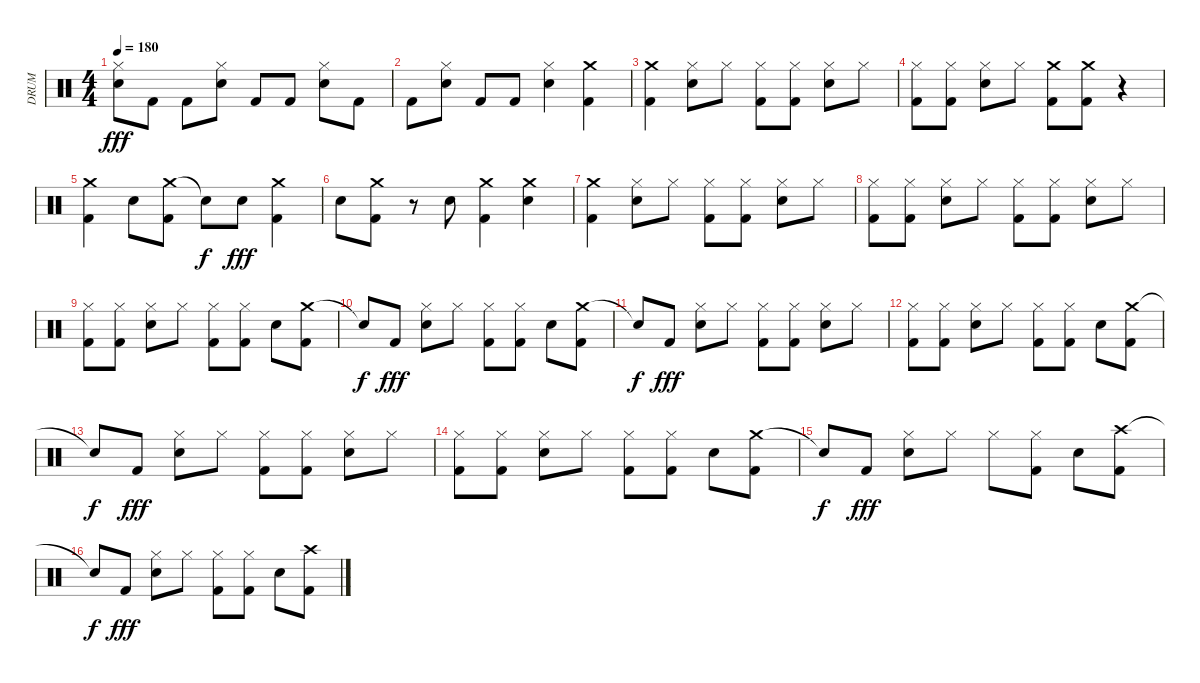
\track ("DRUM" "DRUM") {instrument percussion}
\staff {score}
\articulation defaults
\ts (4 4)
\tempo 180
\clef neutral
\ks c
("Hi-Hat (closed)" "Snare (hit) 2").8{dy fff} "Kick (hit) 2".8 "Kick (hit) 2".8 ("Hi-Hat (closed)" "Snare (hit) 2").8 "Kick (hit) 2".8 "Kick (hit) 2".8 ("Hi-Hat (closed)" "Snare (hit) 2").8 "Kick (hit) 2".8 |
"Kick (hit) 2".8 ("Hi-Hat (closed)" "Snare (hit) 2").8 "Kick (hit) 2".8 "Kick (hit) 2".8 ("Hi-Hat (closed)" "Snare (hit) 2").4 ("Crash medium (hit)" "Kick (hit) 2").4 |
("Crash medium (hit)" "Kick (hit) 2").4 ("Hi-Hat (closed)" "Snare (hit) 2").8 "Hi-Hat (closed)".8 ("Hi-Hat (closed)" "Kick (hit) 2").8 ("Hi-Hat (closed)" "Kick (hit) 2").8 ("Hi-Hat (closed)" "Snare (hit) 2").8 "Hi-Hat (closed)".8 |
("Hi-Hat (closed)" "Kick (hit) 2").8 ("Hi-Hat (closed)" "Kick (hit) 2").8 ("Hi-Hat (closed)" "Snare (hit) 2").8 "Hi-Hat (closed)".8 ("Crash medium (hit)" "Kick (hit) 2").8 ("Crash medium (hit)" "Kick (hit) 2").8 r.4 |
("Crash medium (hit)" "Kick (hit) 2").4 "Snare (hit) 2".8 ("Crash medium (hit)" "Kick (hit) 2").8 "Snare (hit)"{t}.8{dy f} "Snare (hit) 2".8{dy fff} ("Crash medium (hit)" "Kick (hit) 2").4 |
"Snare (hit) 2".8 ("Crash medium (hit)" "Kick (hit) 2").8 r.8 "Snare (hit) 2".8 ("Crash medium (hit)" "Kick (hit) 2").4 ("Crash medium (hit)" "Snare (hit) 2").4 |
("Crash medium (hit)" "Kick (hit) 2").4 ("Hi-Hat (closed)" "Snare (hit) 2").8 "Hi-Hat (closed)".8 ("Hi-Hat (closed)" "Kick (hit) 2").8 ("Hi-Hat (closed)" "Kick (hit) 2").8 ("Hi-Hat (closed)" "Snare (hit) 2").8 "Hi-Hat (closed)".8 |
("Hi-Hat (closed)" "Kick (hit) 2").8 ("Hi-Hat (closed)" "Kick (hit) 2").8 ("Hi-Hat (closed)" "Snare (hit) 2").8 "Hi-Hat (closed)".8 ("Hi-Hat (closed)" "Kick (hit) 2").8 ("Hi-Hat (closed)" "Kick (hit) 2").8 ("Hi-Hat (closed)" "Snare (hit) 2").8 "Hi-Hat (closed)".8 |
("Hi-Hat (closed)" "Kick (hit) 2").8 ("Hi-Hat (closed)" "Kick (hit) 2").8 ("Hi-Hat (closed)" "Snare (hit) 2").8 "Hi-Hat (closed)".8 ("Hi-Hat (closed)" "Kick (hit) 2").8 ("Hi-Hat (closed)" "Kick (hit) 2").8 "Snare (hit) 2".8 ("Crash medium (hit)" "Kick (hit) 2").8 |
"Snare (hit)"{t}.8{dy f} "Kick (hit) 2".8{dy fff} ("Hi-Hat (closed)" "Snare (hit) 2").8 "Hi-Hat (closed)".8 ("Hi-Hat (closed)" "Kick (hit) 2").8 ("Hi-Hat (closed)" "Kick (hit) 2").8 "Snare (hit) 2".8 ("Crash medium (hit)" "Kick (hit) 2").8 |
"Snare (hit)"{t}.8{dy f} "Kick (hit) 2".8{dy fff} ("Hi-Hat (closed)" "Snare (hit) 2").8 "Hi-Hat (closed)".8 ("Hi-Hat (closed)" "Kick (hit) 2").8 ("Hi-Hat (closed)" "Kick (hit) 2").8 ("Hi-Hat (closed)" "Snare (hit) 2").8 "Hi-Hat (closed)".8 |
("Hi-Hat (closed)" "Kick (hit) 2").8 ("Hi-Hat (closed)" "Kick (hit) 2").8 ("Hi-Hat (closed)" "Snare (hit) 2").8 "Hi-Hat (closed)".8 ("Hi-Hat (closed)" "Kick (hit) 2").8 ("Hi-Hat (closed)" "Kick (hit) 2").8 "Snare (hit) 2".8 ("Crash medium (hit)" "Kick (hit) 2").8 |
"Snare (hit)"{t}.8{dy f} "Kick (hit) 2".8{dy fff} ("Hi-Hat (closed)" "Snare (hit) 2").8 "Hi-Hat (closed)".8 ("Hi-Hat (closed)" "Kick (hit) 2").8 ("Hi-Hat (closed)" "Kick (hit) 2").8 ("Hi-Hat (closed)" "Snare (hit) 2").8 "Hi-Hat (closed)".8 |
("Hi-Hat (closed)" "Kick (hit) 2").8 ("Hi-Hat (closed)" "Kick (hit) 2").8 ("Hi-Hat (closed)" "Snare (hit) 2").8 "Hi-Hat (closed)".8 ("Hi-Hat (closed)" "Kick (hit) 2").8 ("Hi-Hat (closed)" "Kick (hit) 2").8 "Snare (hit) 2".8 ("Crash medium (hit)" "Kick (hit) 2").8 |
"Snare (hit)"{t}.8{dy f} "Kick (hit) 2".8{dy fff} ("Hi-Hat (closed)" "Snare (hit) 2").8 "Hi-Hat (closed)".8 "Hi-Hat (closed)".8 ("Hi-Hat (closed)" "Kick (hit) 2").8 "Snare (hit) 2".8 ("Crash high (hit)" "Kick (hit) 2").8 |
"Snare (hit)"{t}.8{dy f} "Kick (hit) 2".8{dy fff} ("Hi-Hat (closed)" "Snare (hit) 2").8 "Hi-Hat (closed)".8 ("Hi-Hat (closed)" "Kick (hit) 2").8 ("Hi-Hat (closed)" "Kick (hit) 2").8 "Snare (hit) 2".8 ("Crash high (hit)" "Kick (hit) 2").8
